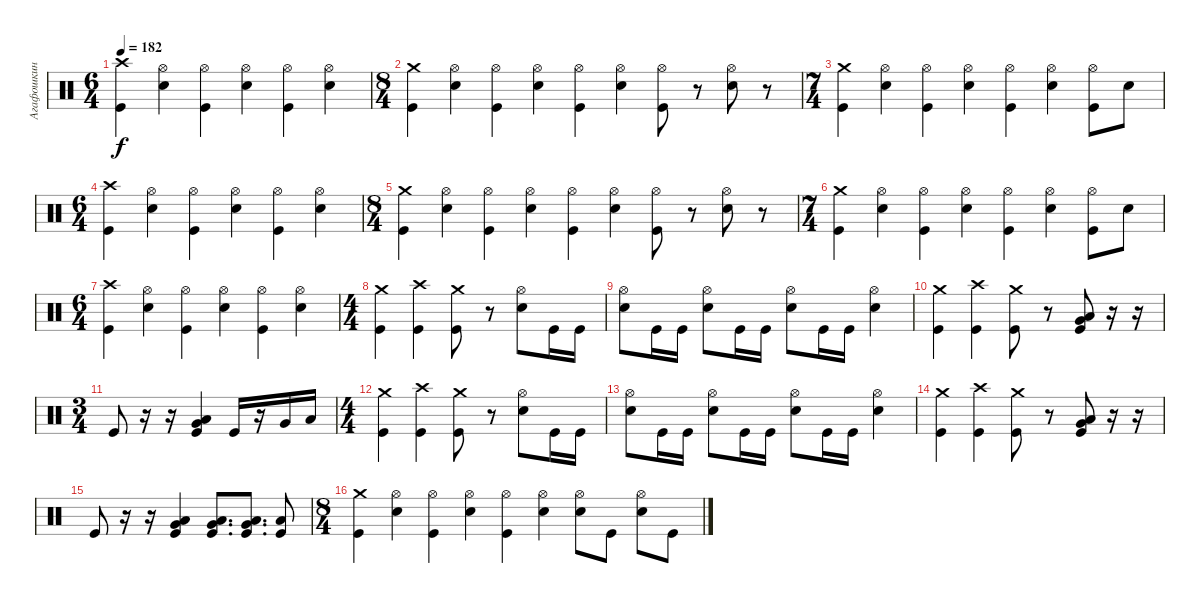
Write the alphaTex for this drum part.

\track ("Агафошкин" "Агафошкин") {instrument percussion}
\staff {score}
\articulation defaults
\ts (6 4)
\tempo 182
\clef neutral
\ks c
("Crash high (hit)" "Kick (hit)").4{dy f} ("Hi-Hat (open)" "Snare (hit) 2").4 ("Hi-Hat (open)" "Kick (hit)").4 ("Hi-Hat (open)" "Snare (hit) 2").4 ("Hi-Hat (open)" "Kick (hit)").4 ("Hi-Hat (open)" "Snare (hit) 2").4 |
\ts (8 4)
("Crash medium (hit)" "Kick (hit)").4 ("Hi-Hat (open)" "Snare (hit) 2").4 ("Hi-Hat (open)" "Kick (hit)").4 ("Hi-Hat (open)" "Snare (hit) 2").4 ("Hi-Hat (open)" "Kick (hit)").4 ("Hi-Hat (open)" "Snare (hit) 2").4 ("Hi-Hat (open)" "Kick (hit)").8 r.8 ("Hi-Hat (open)" "Snare (hit) 2").8 r.8 |
\ts (7 4)
("Crash medium (hit)" "Kick (hit)").4 ("Hi-Hat (open)" "Snare (hit) 2").4 ("Hi-Hat (open)" "Kick (hit)").4 ("Hi-Hat (open)" "Snare (hit) 2").4 ("Hi-Hat (open)" "Kick (hit)").4 ("Hi-Hat (open)" "Snare (hit) 2").4 ("Hi-Hat (open)" "Kick (hit)").8 "Snare (hit) 2".8 |
\ts (6 4)
("Crash high (hit)" "Kick (hit)").4 ("Hi-Hat (open)" "Snare (hit) 2").4 ("Hi-Hat (open)" "Kick (hit)").4 ("Hi-Hat (open)" "Snare (hit) 2").4 ("Hi-Hat (open)" "Kick (hit)").4 ("Hi-Hat (open)" "Snare (hit) 2").4 |
\ts (8 4)
("Crash medium (hit)" "Kick (hit)").4 ("Hi-Hat (open)" "Snare (hit) 2").4 ("Hi-Hat (open)" "Kick (hit)").4 ("Hi-Hat (open)" "Snare (hit) 2").4 ("Hi-Hat (open)" "Kick (hit)").4 ("Hi-Hat (open)" "Snare (hit) 2").4 ("Hi-Hat (open)" "Kick (hit)").8 r.8 ("Hi-Hat (open)" "Snare (hit) 2").8 r.8 |
\ts (7 4)
("Crash medium (hit)" "Kick (hit)").4 ("Hi-Hat (open)" "Snare (hit) 2").4 ("Hi-Hat (open)" "Kick (hit)").4 ("Hi-Hat (open)" "Snare (hit) 2").4 ("Hi-Hat (open)" "Kick (hit)").4 ("Hi-Hat (open)" "Snare (hit) 2").4 ("Hi-Hat (open)" "Kick (hit)").8 "Snare (hit) 2".8 |
\ts (6 4)
("Crash high (hit)" "Kick (hit)").4 ("Hi-Hat (open)" "Snare (hit) 2").4 ("Hi-Hat (open)" "Kick (hit)").4 ("Hi-Hat (open)" "Snare (hit) 2").4 ("Hi-Hat (open)" "Kick (hit)").4 ("Hi-Hat (open)" "Snare (hit) 2").4 |
\ts (4 4)
("Crash medium (hit)" "Kick (hit)").4 ("Crash high (hit)" "Kick (hit)").4 ("Crash medium (hit)" "Kick (hit)").8 r.8 ("Hi-Hat (open)" "Snare (hit) 2").8 "Kick (hit)".16 "Kick (hit)".16 |
("Hi-Hat (open)" "Snare (hit) 2").8 "Kick (hit)".16 "Kick (hit)".16 ("Hi-Hat (open)" "Snare (hit) 2").8 "Kick (hit)".16 "Kick (hit)".16 ("Hi-Hat (open)" "Snare (hit) 2").8 "Kick (hit)".16 "Kick (hit)".16 ("Hi-Hat (open)" "Snare (hit) 2").4 |
("Crash medium (hit)" "Kick (hit)").4 ("Crash high (hit)" "Kick (hit)").4 ("Crash medium (hit)" "Kick (hit)").8 r.8 ("Kick (hit)" "Low Tom (hit)" "Very Low Tom (hit)").8 r.16 r.16 |
\ts (3 4)
"Kick (hit)".8 r.16 r.16 ("Kick (hit)" "Very Low Tom (hit)" "Low Tom (hit)").4 "Kick (hit)".16 r.16 "Very Low Tom (hit)".16 "Low Tom (hit)".16 |
\ts (4 4)
("Crash medium (hit)" "Kick (hit)").4 ("Crash high (hit)" "Kick (hit)").4 ("Crash medium (hit)" "Kick (hit)").8 r.8 ("Hi-Hat (open)" "Snare (hit) 2").8 "Kick (hit)".16 "Kick (hit)".16 |
("Hi-Hat (open)" "Snare (hit) 2").8 "Kick (hit)".16 "Kick (hit)".16 ("Hi-Hat (open)" "Snare (hit) 2").8 "Kick (hit)".16 "Kick (hit)".16 ("Hi-Hat (open)" "Snare (hit) 2").8 "Kick (hit)".16 "Kick (hit)".16 ("Hi-Hat (open)" "Snare (hit) 2").4 |
("Crash medium (hit)" "Kick (hit)").4 ("Crash high (hit)" "Kick (hit)").4 ("Crash medium (hit)" "Kick (hit)").8 r.8 ("Kick (hit)" "Low Tom (hit)" "Very Low Tom (hit)").8 r.16 r.16 |
"Kick (hit)".8 r.16 r.16 ("Kick (hit)" "Very Low Tom (hit)" "Low Tom (hit)").4 ("Very Low Tom (hit)" "Low Tom (hit)" "Kick (hit)").8{d} ("Very Low Tom (hit)" "Low Tom (hit)" "Kick (hit)").8{d} ("Low Tom (hit)" "Kick (hit)").8 |
\ts (8 4)
("Crash medium (hit)" "Kick (hit)").4 ("Hi-Hat (open)" "Snare (hit) 2").4 ("Hi-Hat (open)" "Kick (hit)").4 ("Hi-Hat (open)" "Snare (hit) 2").4 ("Hi-Hat (open)" "Kick (hit)").4 ("Hi-Hat (open)" "Snare (hit) 2").4 ("Hi-Hat (open)" "Snare (hit) 2").8 "Kick (hit)".8 ("Hi-Hat (open)" "Snare (hit) 2").8 "Kick (hit)".8
